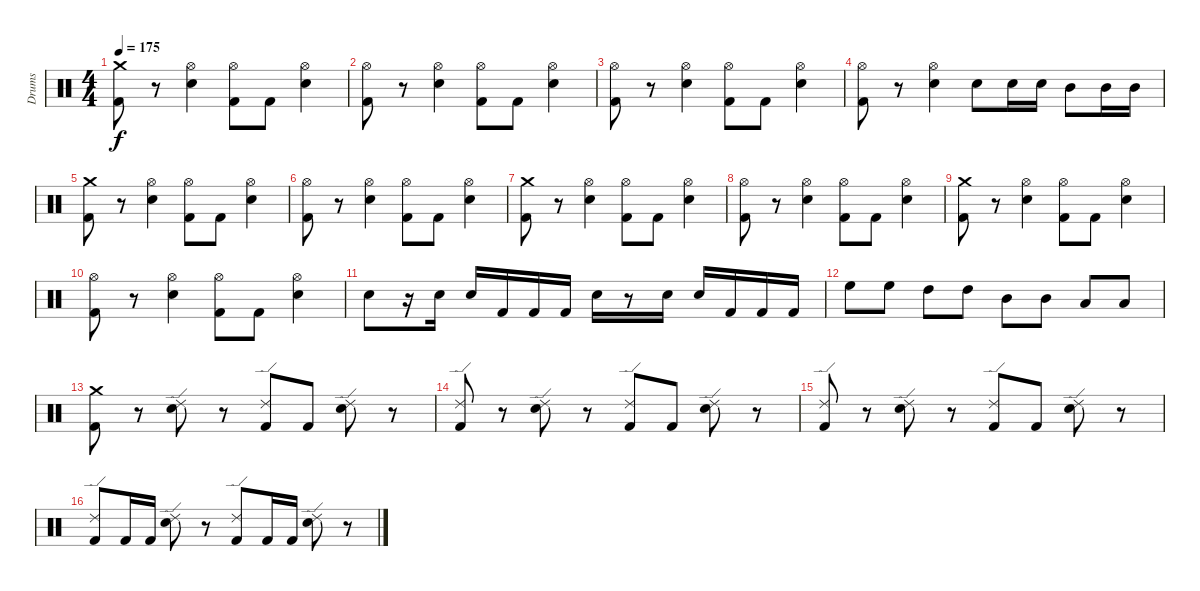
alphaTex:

\track ("Drums" "Drums") {instrument percussion}
\staff {score}
\articulation defaults
\ts (4 4)
\tempo 175
\clef neutral
\ks c
("Kick (hit) 2" "Crash medium (hit)").8{dy f} r.8 ("Hi-Hat (open)" "Electric Snare (hit)").4 ("Hi-Hat (open)" "Kick (hit) 2").8 "Kick (hit) 2".8 ("Hi-Hat (open)" "Electric Snare (hit)").4 |
("Hi-Hat (open)" "Kick (hit) 2").8 r.8 ("Hi-Hat (open)" "Electric Snare (hit)").4 ("Hi-Hat (open)" "Kick (hit) 2").8 "Kick (hit) 2".8 ("Hi-Hat (open)" "Electric Snare (hit)").4 |
("Hi-Hat (open)" "Kick (hit) 2").8 r.8 ("Hi-Hat (open)" "Electric Snare (hit)").4 ("Hi-Hat (open)" "Kick (hit) 2").8 "Kick (hit) 2".8 ("Hi-Hat (open)" "Electric Snare (hit)").4 |
("Hi-Hat (open)" "Kick (hit) 2").8 r.8 ("Hi-Hat (open)" "Electric Snare (hit)").4 "Electric Snare (hit)".8 "Electric Snare (hit)".16 "Electric Snare (hit)".16 "Mid Tom (hit)".8 "Mid Tom (hit)".16 "Mid Tom (hit)".16 |
("Kick (hit) 2" "Crash medium (hit)").8 r.8 ("Hi-Hat (open)" "Electric Snare (hit)").4 ("Hi-Hat (open)" "Kick (hit) 2").8 "Kick (hit) 2".8 ("Hi-Hat (open)" "Electric Snare (hit)").4 |
("Hi-Hat (open)" "Kick (hit) 2").8 r.8 ("Hi-Hat (open)" "Electric Snare (hit)").4 ("Hi-Hat (open)" "Kick (hit) 2").8 "Kick (hit) 2".8 ("Hi-Hat (open)" "Electric Snare (hit)").4 |
("Crash medium (hit)" "Kick (hit) 2").8 r.8 ("Hi-Hat (open)" "Electric Snare (hit)").4 ("Hi-Hat (open)" "Kick (hit) 2").8 "Kick (hit) 2".8 ("Hi-Hat (open)" "Electric Snare (hit)").4 |
("Hi-Hat (open)" "Kick (hit) 2").8 r.8 ("Hi-Hat (open)" "Electric Snare (hit)").4 ("Hi-Hat (open)" "Kick (hit) 2").8 "Kick (hit) 2".8 ("Hi-Hat (open)" "Electric Snare (hit)").4 |
("Kick (hit) 2" "Crash medium (hit)").8 r.8 ("Hi-Hat (open)" "Electric Snare (hit)").4 ("Hi-Hat (open)" "Kick (hit) 2").8 "Kick (hit) 2".8 ("Hi-Hat (open)" "Electric Snare (hit)").4 |
("Hi-Hat (open)" "Kick (hit) 2").8 r.8 ("Hi-Hat (open)" "Electric Snare (hit)").4 ("Hi-Hat (open)" "Kick (hit) 2").8 "Kick (hit) 2".8 ("Hi-Hat (open)" "Electric Snare (hit)").4 |
"Electric Snare (hit)".8 r.16 "Electric Snare (hit)".16 "Electric Snare (hit)".16 "Kick (hit) 2".16 "Kick (hit) 2".16 "Kick (hit) 2".16 "Electric Snare (hit)".16 r.8 "Electric Snare (hit)".16 "Electric Snare (hit)".16 "Kick (hit) 2".16 "Kick (hit) 2".16 "Kick (hit) 2".16 |
"High Floor Tom (hit)".8 "High Floor Tom (hit)".8 "High Tom (hit)".8 "High Tom (hit)".8 "Mid Tom (hit)".8 "Mid Tom (hit)".8 "Low Tom (hit)".8 "Low Tom (hit)".8 |
("Crash medium (hit)" "Kick (hit) 2").8 r.8 ("Ride (edge) 2" "Electric Snare (hit)").8 r.8 ("Ride (edge) 2" "Kick (hit) 2").8 "Kick (hit) 2".8 ("Ride (edge) 2" "Electric Snare (hit)").8 r.8 |
("Ride (edge) 2" "Kick (hit) 2").8 r.8 ("Ride (edge) 2" "Electric Snare (hit)").8 r.8 ("Ride (edge) 2" "Kick (hit) 2").8 "Kick (hit) 2".8 ("Ride (edge) 2" "Electric Snare (hit)").8 r.8 |
("Ride (edge) 2" "Kick (hit) 2").8 r.8 ("Ride (edge) 2" "Electric Snare (hit)").8 r.8 ("Ride (edge) 2" "Kick (hit) 2").8 "Kick (hit) 2".8 ("Ride (edge) 2" "Electric Snare (hit)").8 r.8 |
("Ride (edge) 2" "Kick (hit) 2").8 "Kick (hit) 2".16 "Kick (hit) 2".16 ("Ride (edge) 2" "Electric Snare (hit)").8 r.8 ("Ride (edge) 2" "Kick (hit) 2").8 "Kick (hit) 2".16 "Kick (hit) 2".16 ("Ride (edge) 2" "Electric Snare (hit)").8 r.8
